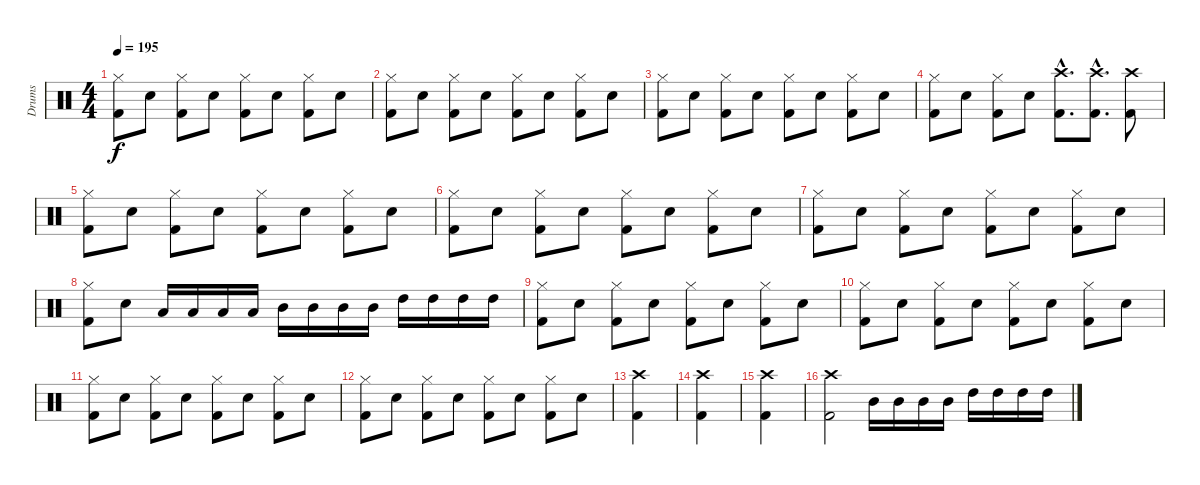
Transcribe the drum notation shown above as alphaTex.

\track ("Drums" "Drums") {instrument percussion}
\staff {score}
\articulation defaults
\ts (4 4)
\tempo 195
\clef neutral
\ks c
("Kick (hit) 2" "Hi-Hat (closed)").8{dy f} "Snare (hit) 2".8 ("Kick (hit) 2" "Hi-Hat (closed)").8 "Snare (hit) 2".8 ("Kick (hit) 2" "Hi-Hat (closed)").8 "Snare (hit) 2".8 ("Kick (hit) 2" "Hi-Hat (closed)").8 "Snare (hit) 2".8 |
("Kick (hit) 2" "Hi-Hat (closed)").8 "Snare (hit) 2".8 ("Kick (hit) 2" "Hi-Hat (closed)").8 "Snare (hit) 2".8 ("Kick (hit) 2" "Hi-Hat (closed)").8 "Snare (hit) 2".8 ("Kick (hit) 2" "Hi-Hat (closed)").8 "Snare (hit) 2".8 |
("Kick (hit) 2" "Hi-Hat (closed)").8 "Snare (hit) 2".8 ("Kick (hit) 2" "Hi-Hat (closed)").8 "Snare (hit) 2".8 ("Kick (hit) 2" "Hi-Hat (closed)").8 "Snare (hit) 2".8 ("Kick (hit) 2" "Hi-Hat (closed)").8 "Snare (hit) 2".8 |
("Kick (hit) 2" "Hi-Hat (closed)").8 "Snare (hit) 2".8 ("Kick (hit) 2" "Hi-Hat (closed)").8 "Snare (hit) 2".8 ("Kick (hit) 2"{hac} "Crash high (hit)"{hac}).8{d} ("Kick (hit) 2"{hac} "Crash high (hit)"{hac}).8{d} ("Kick (hit) 2" "Crash high (hit)").8 |
("Kick (hit) 2" "Hi-Hat (closed)").8 "Snare (hit) 2".8 ("Kick (hit) 2" "Hi-Hat (closed)").8 "Snare (hit) 2".8 ("Kick (hit) 2" "Hi-Hat (closed)").8 "Snare (hit) 2".8 ("Kick (hit) 2" "Hi-Hat (closed)").8 "Snare (hit) 2".8 |
("Kick (hit) 2" "Hi-Hat (closed)").8 "Snare (hit) 2".8 ("Kick (hit) 2" "Hi-Hat (closed)").8 "Snare (hit) 2".8 ("Kick (hit) 2" "Hi-Hat (closed)").8 "Snare (hit) 2".8 ("Kick (hit) 2" "Hi-Hat (closed)").8 "Snare (hit) 2".8 |
("Kick (hit) 2" "Hi-Hat (closed)").8 "Snare (hit) 2".8 ("Kick (hit) 2" "Hi-Hat (closed)").8 "Snare (hit) 2".8 ("Kick (hit) 2" "Hi-Hat (closed)").8 "Snare (hit) 2".8 ("Kick (hit) 2" "Hi-Hat (closed)").8 "Snare (hit) 2".8 |
("Kick (hit) 2" "Hi-Hat (closed)").8 "Snare (hit) 2".8 "Low Tom (hit)".16 "Low Tom (hit)".16 "Low Tom (hit)".16 "Low Tom (hit)".16 "Mid Tom (hit)".16 "Mid Tom (hit)".16 "Mid Tom (hit)".16 "Mid Tom (hit)".16 "High Tom (hit)".16 "High Tom (hit)".16 "High Tom (hit)".16 "High Tom (hit)".16 |
("Kick (hit) 2" "Hi-Hat (closed)").8 "Snare (hit) 2".8 ("Kick (hit) 2" "Hi-Hat (closed)").8 "Snare (hit) 2".8 ("Kick (hit) 2" "Hi-Hat (closed)").8 "Snare (hit) 2".8 ("Kick (hit) 2" "Hi-Hat (closed)").8 "Snare (hit) 2".8 |
("Kick (hit) 2" "Hi-Hat (closed)").8 "Snare (hit) 2".8 ("Kick (hit) 2" "Hi-Hat (closed)").8 "Snare (hit) 2".8 ("Kick (hit) 2" "Hi-Hat (closed)").8 "Snare (hit) 2".8 ("Kick (hit) 2" "Hi-Hat (closed)").8 "Snare (hit) 2".8 |
("Kick (hit) 2" "Hi-Hat (closed)").8 "Snare (hit) 2".8 ("Kick (hit) 2" "Hi-Hat (closed)").8 "Snare (hit) 2".8 ("Kick (hit) 2" "Hi-Hat (closed)").8 "Snare (hit) 2".8 ("Kick (hit) 2" "Hi-Hat (closed)").8 "Snare (hit) 2".8 |
("Kick (hit) 2" "Hi-Hat (closed)").8 "Snare (hit) 2".8 ("Kick (hit) 2" "Hi-Hat (closed)").8 "Snare (hit) 2".8 ("Kick (hit) 2" "Hi-Hat (closed)").8 "Snare (hit) 2".8 ("Kick (hit) 2" "Hi-Hat (closed)").8 "Snare (hit) 2".8 |
("Kick (hit) 2" "Crash high (hit)").4 |
("Kick (hit) 2" "Crash high (hit)").4 |
("Kick (hit) 2" "Crash high (hit)").4 |
("Kick (hit) 2" "Crash high (hit)").2 "Mid Tom (hit)".16 "Mid Tom (hit)".16 "Mid Tom (hit)".16 "Mid Tom (hit)".16 "High Tom (hit)".16 "High Tom (hit)".16 "High Tom (hit)".16 "High Tom (hit)".16
